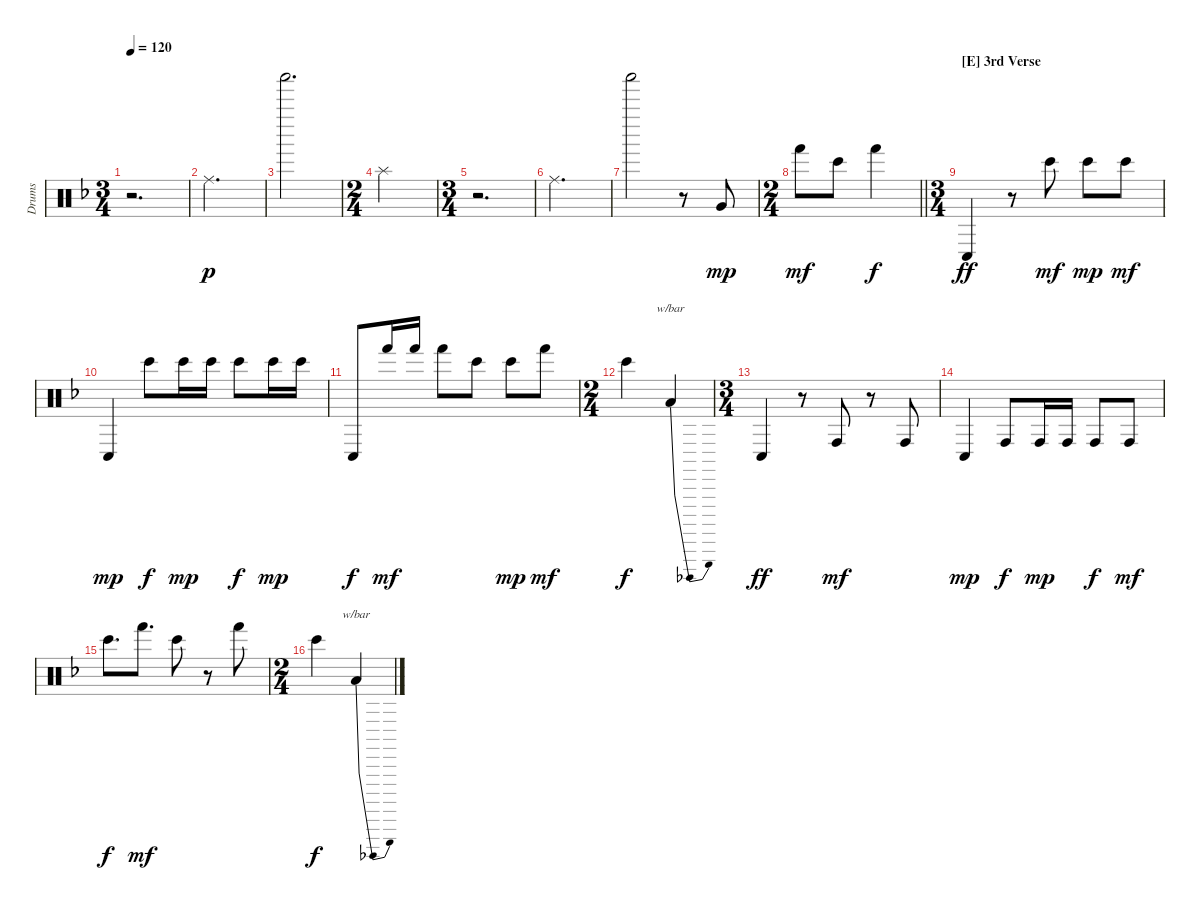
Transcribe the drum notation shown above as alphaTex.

\track ("Drums" "Drums") {instrument percussion}
\staff {score}
\articulation defaults
\ts (3 4)
\tempo 120
\clef neutral
\ks dminor
r.2{d dy p} |
"Ride (middle)".2{d} |
"Shaker (hit)".2{d} |
\ts (2 4)
"Splash (hit)".2 |
\ts (3 4)
r.2{d} |
"Ride (middle)".2{d} |
"Shaker (hit)".2 r.8 "Very Low Tom (hit)".8{dy mp} |
\ts (2 4)
\barLineRight lightlight "Hand (hit)".8{dy mf} "Bongo High (hit)".8 "Hand (hit)".4{dy f}
|
\ts (3 4)
\section ("" "[E] 3rd Verse")
"Conga low (hit)".4{dy ff} r.8 "Bongo High (hit)".8{dy mf} "Bongo High (hit)".8{dy mp} "Bongo High (hit)".8{dy mf} |
"Conga low (hit)".4{dy mp} "Bongo High (hit)".8{dy f} "Bongo High (hit)".16{dy mp} "Bongo High (hit)".16 "Bongo High (hit)".8{dy f} "Bongo High (hit)".16{dy mp} "Bongo High (hit)".16 |
"Conga low (hit)".8{dy f} "Hand (hit)".16{dy mf} "Hand (hit)".16 "Hand (hit)".8 "Bongo High (hit)".8 "Bongo High (hit)".8{dy mp} "Hand (hit)".8{dy mf} |
\ts (2 4)
"Bongo High (hit)".4{dy f} "Low Tom (hit)".4{tbe (dip default 0 0 30 -12 60 0)} |
\ts (3 4)
"Conga low (hit)".4{dy ff} r.8 "Conga high (hit)".8{dy mf} r.8 "Conga high (hit)".8 |
"Conga low (hit)".4{dy mp} "Conga high (hit)".8{dy f} "Conga high (hit)".16{dy mp} "Conga high (hit)".16 "Conga high (hit)".8{dy f} "Conga high (hit)".8{dy mf} |
"Bongo High (hit)".8{d dy f} "Hand (hit)".8{d dy mf} "Bongo High (hit)".8 r.8 "Hand (hit)".8 |
\ts (2 4)
"Bongo High (hit)".4{dy f} "Low Tom (hit)".4{tbe (dip default 0 0 30 -12 60 0)}
